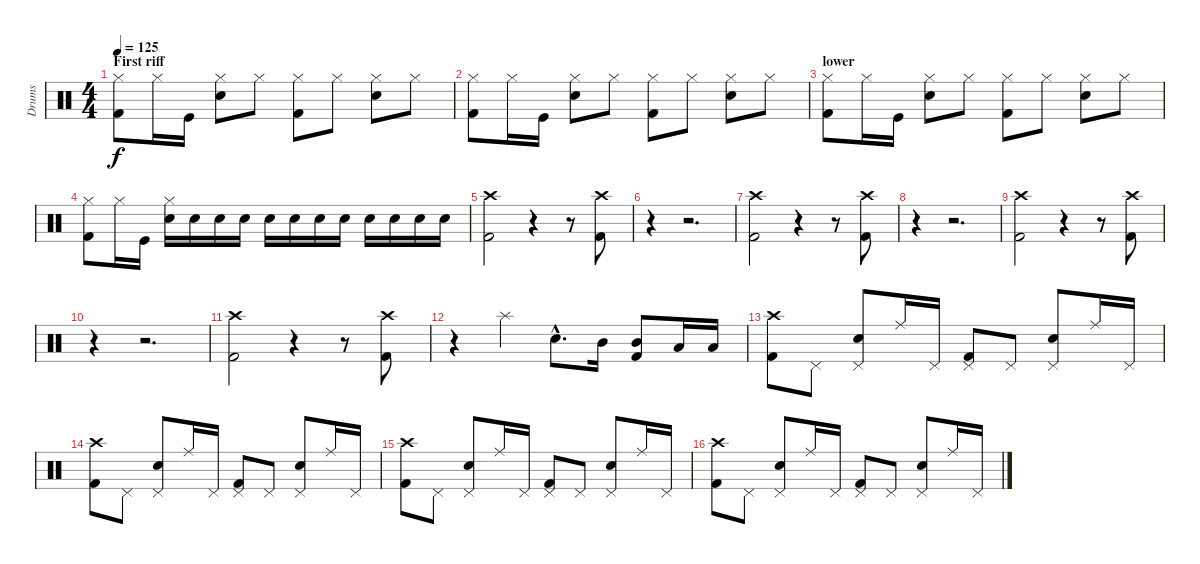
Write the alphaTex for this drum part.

\track ("Drums" "Drums") {instrument percussion}
\staff {score}
\articulation defaults
\ts (4 4)
\section ("" "First riff")
\tempo 125
\clef neutral
\ks c
("Hi-Hat (closed)" "Kick (hit) 2").8{dy f volume 16} "Hi-Hat (closed)".16 "Kick (hit)".16 ("Hi-Hat (closed)" "Snare (hit) 2").8 "Hi-Hat (closed)".8 ("Hi-Hat (closed)" "Kick (hit) 2").8 "Hi-Hat (closed)".8 ("Hi-Hat (closed)" "Snare (hit) 2").8 "Hi-Hat (closed)".8 |
("Hi-Hat (closed)" "Kick (hit) 2").8 "Hi-Hat (closed)".16 "Kick (hit)".16 ("Hi-Hat (closed)" "Snare (hit) 2").8 "Hi-Hat (closed)".8 ("Hi-Hat (closed)" "Kick (hit) 2").8 "Hi-Hat (closed)".8 ("Hi-Hat (closed)" "Snare (hit) 2").8 "Hi-Hat (closed)".8 |
\section ("" "lower")
("Hi-Hat (closed)" "Kick (hit) 2").8 "Hi-Hat (closed)".16 "Kick (hit)".16 ("Hi-Hat (closed)" "Snare (hit) 2").8 "Hi-Hat (closed)".8 ("Hi-Hat (closed)" "Kick (hit) 2").8 "Hi-Hat (closed)".8 ("Hi-Hat (closed)" "Snare (hit) 2").8 "Hi-Hat (closed)".8 |
("Hi-Hat (closed)" "Kick (hit) 2").8 "Hi-Hat (closed)".16 "Kick (hit)".16 ("Hi-Hat (closed)" "Snare (hit) 2").16{volume 1} "Snare (hit) 2".16{volume 16} "Snare (hit) 2".16 "Snare (hit) 2".16 "Snare (hit) 2".16 "Snare (hit) 2".16 "Snare (hit) 2".16 "Snare (hit) 2".16 "Snare (hit) 2".16 "Snare (hit) 2".16 "Snare (hit) 2".16 "Snare (hit) 2".16 |
("Crash high (hit)" "Kick (hit) 2").2 r.4 r.8 ("Crash high (hit)" "Kick (hit) 2").8 |
r.4 r.2{d} |
("Crash high (hit)" "Kick (hit) 2").2 r.4 r.8 ("Crash high (hit)" "Kick (hit) 2").8 |
r.4 r.2{d} |
("Crash high (hit)" "Kick (hit) 2").2 r.4 r.8 ("Crash high (hit)" "Kick (hit) 2").8 |
r.4 r.2{d} |
("Crash high (hit)" "Kick (hit) 2").2 r.4 r.8 ("Crash high (hit)" "Kick (hit) 2").8 |
r.4 "Splash (hit)".4 "Snare (hit) 2"{hac}.8{d} "Mid Tom (hit)".16 ("Kick (hit) 2" "Mid Tom (hit)").8 "Low Tom (hit)".16 "Low Tom (hit)".16 |
("Crash high (hit)" "Kick (hit) 2").8 "Pedal Hi-Hat (hit)".8 ("Pedal Hi-Hat (hit)" "Snare (hit) 2").8 "Ride (middle)".16 "Pedal Hi-Hat (hit)".16 ("Pedal Hi-Hat (hit)" "Kick (hit) 2").8 "Pedal Hi-Hat (hit)".8 ("Pedal Hi-Hat (hit)" "Snare (hit) 2").8 "Ride (middle)".16 "Pedal Hi-Hat (hit)".16 |
("Crash high (hit)" "Kick (hit) 2").8 "Pedal Hi-Hat (hit)".8 ("Pedal Hi-Hat (hit)" "Snare (hit) 2").8 "Ride (middle)".16 "Pedal Hi-Hat (hit)".16 ("Pedal Hi-Hat (hit)" "Kick (hit) 2").8 "Pedal Hi-Hat (hit)".8 ("Pedal Hi-Hat (hit)" "Snare (hit) 2").8 "Ride (middle)".16 "Pedal Hi-Hat (hit)".16 |
("Crash high (hit)" "Kick (hit) 2").8 "Pedal Hi-Hat (hit)".8 ("Pedal Hi-Hat (hit)" "Snare (hit) 2").8 "Ride (middle)".16 "Pedal Hi-Hat (hit)".16 ("Pedal Hi-Hat (hit)" "Kick (hit) 2").8 "Pedal Hi-Hat (hit)".8 ("Pedal Hi-Hat (hit)" "Snare (hit) 2").8 "Ride (middle)".16 "Pedal Hi-Hat (hit)".16 |
("Crash high (hit)" "Kick (hit) 2").8 "Pedal Hi-Hat (hit)".8 ("Pedal Hi-Hat (hit)" "Snare (hit) 2").8 "Ride (middle)".16 "Pedal Hi-Hat (hit)".16 ("Pedal Hi-Hat (hit)" "Kick (hit) 2").8 "Pedal Hi-Hat (hit)".8 ("Pedal Hi-Hat (hit)" "Snare (hit) 2").8 "Ride (middle)".16 "Pedal Hi-Hat (hit)".16
